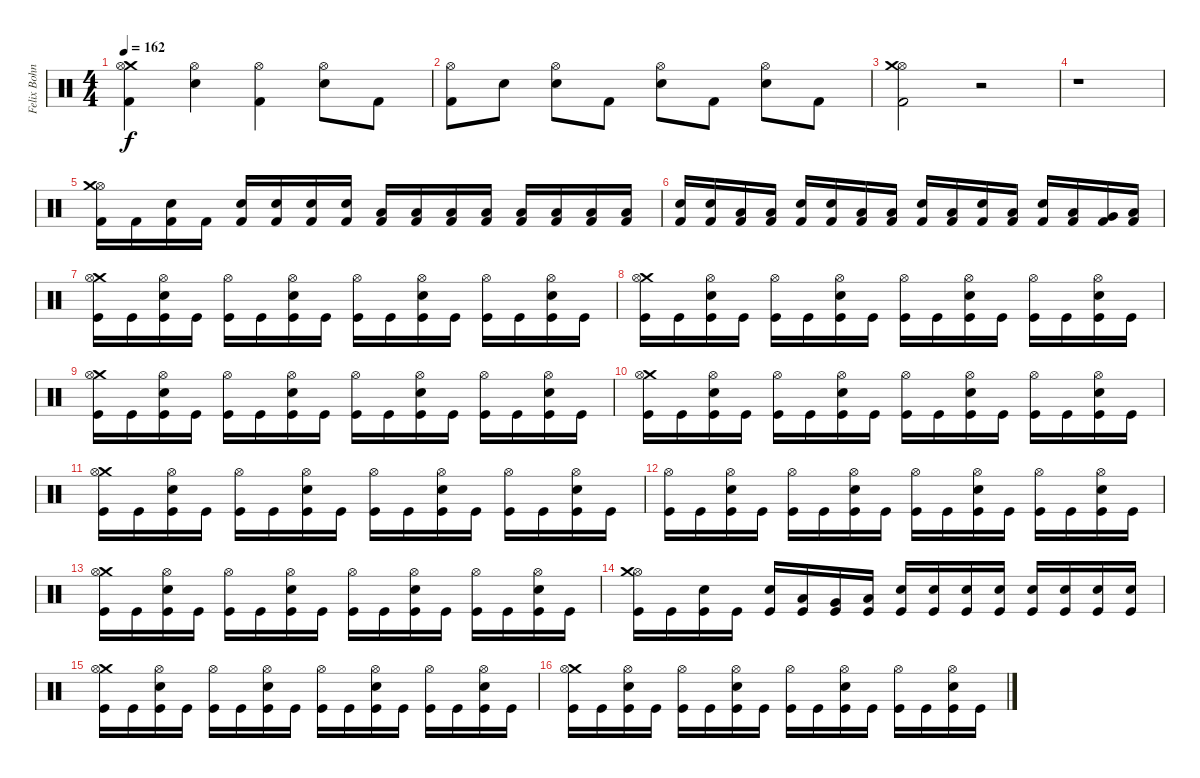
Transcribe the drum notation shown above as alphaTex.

\track ("Felix Bohnke" "Felix Bohn") {instrument percussion}
\staff {score}
\articulation defaults
\ts (4 4)
\tempo 162
\clef neutral
\ks c
("Crash medium (hit)" "Kick (hit) 2" "Hi-Hat (open)").4{dy f} ("Electric Snare (hit)" "Hi-Hat (open)").4 ("Kick (hit) 2" "Hi-Hat (open)").4 ("Electric Snare (hit)" "Hi-Hat (open)").8 "Kick (hit) 2".8 |
("Kick (hit) 2" "Hi-Hat (open)").8 "Electric Snare (hit)".8 ("Electric Snare (hit)" "Hi-Hat (open)").8 "Kick (hit) 2".8 ("Electric Snare (hit)" "Hi-Hat (open)").8 "Kick (hit) 2".8 ("Electric Snare (hit)" "Hi-Hat (open)").8 "Kick (hit) 2".8 |
("Hi-Hat (open)" "Crash medium (hit)" "Kick (hit) 2").2 r.2 |
r.1 |
("Hi-Hat (open)" "Crash medium (hit)" "Kick (hit) 2").16 "Kick (hit) 2".16 ("Electric Snare (hit)" "Kick (hit) 2").16 "Kick (hit) 2".16 ("Electric Snare (hit)" "Kick (hit) 2").16 ("Electric Snare (hit)" "Kick (hit) 2").16 ("Electric Snare (hit)" "Kick (hit) 2").16 ("Electric Snare (hit)" "Kick (hit) 2").16 ("Low Tom (hit)" "Kick (hit) 2").16 ("Low Tom (hit)" "Kick (hit) 2").16 ("Low Tom (hit)" "Kick (hit) 2").16 ("Low Tom (hit)" "Kick (hit) 2").16 ("Low Tom (hit)" "Kick (hit) 2").16 ("Low Tom (hit)" "Kick (hit) 2").16 ("Low Tom (hit)" "Kick (hit) 2").16 ("Low Tom (hit)" "Kick (hit) 2").16 |
("Electric Snare (hit)" "Kick (hit) 2").16 ("Electric Snare (hit)" "Kick (hit) 2").16 ("Low Tom (hit)" "Kick (hit) 2").16 ("Low Tom (hit)" "Kick (hit) 2").16 ("Electric Snare (hit)" "Kick (hit) 2").16 ("Electric Snare (hit)" "Kick (hit) 2").16 ("Low Tom (hit)" "Kick (hit) 2").16 ("Low Tom (hit)" "Kick (hit) 2").16 ("Electric Snare (hit)" "Kick (hit) 2").16 ("Low Tom (hit)" "Kick (hit) 2").16 ("Electric Snare (hit)" "Kick (hit) 2").16 ("Low Tom (hit)" "Kick (hit) 2").16 ("Electric Snare (hit)" "Kick (hit) 2").16 ("Low Tom (hit)" "Kick (hit) 2").16 ("Very Low Tom (hit)" "Kick (hit) 2").16 ("Low Floor Tom (hit)" "Kick (hit) 2").16 |
("Crash medium (hit)" "Hi-Hat (open)" "Kick (hit)").16 "Kick (hit)".16 ("Electric Snare (hit)" "Hi-Hat (open)" "Kick (hit)").16 "Kick (hit)".16 ("Hi-Hat (open)" "Kick (hit)").16 "Kick (hit)".16 ("Electric Snare (hit)" "Hi-Hat (open)" "Kick (hit)").16 "Kick (hit)".16 ("Hi-Hat (open)" "Kick (hit)").16 "Kick (hit)".16 ("Electric Snare (hit)" "Hi-Hat (open)" "Kick (hit)").16 "Kick (hit)".16 ("Hi-Hat (open)" "Kick (hit)").16 "Kick (hit)".16 ("Electric Snare (hit)" "Hi-Hat (open)" "Kick (hit)").16 "Kick (hit)".16 |
("Crash medium (hit)" "Hi-Hat (open)" "Kick (hit)").16 "Kick (hit)".16 ("Electric Snare (hit)" "Hi-Hat (open)" "Kick (hit)").16 "Kick (hit)".16 ("Hi-Hat (open)" "Kick (hit)").16 "Kick (hit)".16 ("Electric Snare (hit)" "Hi-Hat (open)" "Kick (hit)").16 "Kick (hit)".16 ("Hi-Hat (open)" "Kick (hit)").16 "Kick (hit)".16 ("Electric Snare (hit)" "Hi-Hat (open)" "Kick (hit)").16 "Kick (hit)".16 ("Hi-Hat (open)" "Kick (hit)").16 "Kick (hit)".16 ("Electric Snare (hit)" "Hi-Hat (open)" "Kick (hit)").16 "Kick (hit)".16 |
("Crash medium (hit)" "Hi-Hat (open)" "Kick (hit)").16 "Kick (hit)".16 ("Electric Snare (hit)" "Hi-Hat (open)" "Kick (hit)").16 "Kick (hit)".16 ("Hi-Hat (open)" "Kick (hit)").16 "Kick (hit)".16 ("Electric Snare (hit)" "Hi-Hat (open)" "Kick (hit)").16 "Kick (hit)".16 ("Hi-Hat (open)" "Kick (hit)").16 "Kick (hit)".16 ("Electric Snare (hit)" "Hi-Hat (open)" "Kick (hit)").16 "Kick (hit)".16 ("Hi-Hat (open)" "Kick (hit)").16 "Kick (hit)".16 ("Electric Snare (hit)" "Hi-Hat (open)" "Kick (hit)").16 "Kick (hit)".16 |
("Crash medium (hit)" "Hi-Hat (open)" "Kick (hit)").16 "Kick (hit)".16 ("Electric Snare (hit)" "Hi-Hat (open)" "Kick (hit)").16 "Kick (hit)".16 ("Hi-Hat (open)" "Kick (hit)").16 "Kick (hit)".16 ("Electric Snare (hit)" "Hi-Hat (open)" "Kick (hit)").16 "Kick (hit)".16 ("Hi-Hat (open)" "Kick (hit)").16 "Kick (hit)".16 ("Electric Snare (hit)" "Hi-Hat (open)" "Kick (hit)").16 "Kick (hit)".16 ("Hi-Hat (open)" "Kick (hit)").16 "Kick (hit)".16 ("Electric Snare (hit)" "Hi-Hat (open)" "Kick (hit)").16 "Kick (hit)".16 |
("Crash medium (hit)" "Hi-Hat (open)" "Kick (hit)").16 "Kick (hit)".16 ("Electric Snare (hit)" "Hi-Hat (open)" "Kick (hit)").16 "Kick (hit)".16 ("Hi-Hat (open)" "Kick (hit)").16 "Kick (hit)".16 ("Electric Snare (hit)" "Hi-Hat (open)" "Kick (hit)").16 "Kick (hit)".16 ("Hi-Hat (open)" "Kick (hit)").16 "Kick (hit)".16 ("Electric Snare (hit)" "Hi-Hat (open)" "Kick (hit)").16 "Kick (hit)".16 ("Hi-Hat (open)" "Kick (hit)").16 "Kick (hit)".16 ("Electric Snare (hit)" "Hi-Hat (open)" "Kick (hit)").16 "Kick (hit)".16 |
("Hi-Hat (open)" "Kick (hit)").16 "Kick (hit)".16 ("Electric Snare (hit)" "Hi-Hat (open)" "Kick (hit)").16 "Kick (hit)".16 ("Hi-Hat (open)" "Kick (hit)").16 "Kick (hit)".16 ("Electric Snare (hit)" "Hi-Hat (open)" "Kick (hit)").16 "Kick (hit)".16 ("Hi-Hat (open)" "Kick (hit)").16 "Kick (hit)".16 ("Electric Snare (hit)" "Hi-Hat (open)" "Kick (hit)").16 "Kick (hit)".16 ("Hi-Hat (open)" "Kick (hit)").16 "Kick (hit)".16 ("Electric Snare (hit)" "Hi-Hat (open)" "Kick (hit)").16 "Kick (hit)".16 |
("Crash medium (hit)" "Hi-Hat (open)" "Kick (hit)").16 "Kick (hit)".16 ("Electric Snare (hit)" "Hi-Hat (open)" "Kick (hit)").16 "Kick (hit)".16 ("Hi-Hat (open)" "Kick (hit)").16 "Kick (hit)".16 ("Electric Snare (hit)" "Hi-Hat (open)" "Kick (hit)").16 "Kick (hit)".16 ("Hi-Hat (open)" "Kick (hit)").16 "Kick (hit)".16 ("Electric Snare (hit)" "Hi-Hat (open)" "Kick (hit)").16 "Kick (hit)".16 ("Hi-Hat (open)" "Kick (hit)").16 "Kick (hit)".16 ("Electric Snare (hit)" "Hi-Hat (open)" "Kick (hit)").16 "Kick (hit)".16 |
("Hi-Hat (open)" "Crash medium (hit)" "Kick (hit)").16 "Kick (hit)".16 ("Electric Snare (hit)" "Kick (hit)").16 "Kick (hit)".16 ("Electric Snare (hit)" "Kick (hit)").16 ("Low Tom (hit)" "Kick (hit)").16 ("Very Low Tom (hit)" "Kick (hit)").16 ("Low Floor Tom (hit)" "Kick (hit)").16 ("Electric Snare (hit)" "Kick (hit)").16 ("Electric Snare (hit)" "Kick (hit)").16 ("Electric Snare (hit)" "Kick (hit)").16 ("Electric Snare (hit)" "Kick (hit)").16 ("Electric Snare (hit)" "Kick (hit)").16 ("Electric Snare (hit)" "Kick (hit)").16 ("Electric Snare (hit)" "Kick (hit)").16 ("Electric Snare (hit)" "Kick (hit)").16 |
("Crash medium (hit)" "Hi-Hat (open)" "Kick (hit)").16 "Kick (hit)".16 ("Electric Snare (hit)" "Hi-Hat (open)" "Kick (hit)").16 "Kick (hit)".16 ("Hi-Hat (open)" "Kick (hit)").16 "Kick (hit)".16 ("Electric Snare (hit)" "Hi-Hat (open)" "Kick (hit)").16 "Kick (hit)".16 ("Hi-Hat (open)" "Kick (hit)").16 "Kick (hit)".16 ("Electric Snare (hit)" "Hi-Hat (open)" "Kick (hit)").16 "Kick (hit)".16 ("Hi-Hat (open)" "Kick (hit)").16 "Kick (hit)".16 ("Electric Snare (hit)" "Hi-Hat (open)" "Kick (hit)").16 "Kick (hit)".16 |
("Crash medium (hit)" "Hi-Hat (open)" "Kick (hit)").16 "Kick (hit)".16 ("Electric Snare (hit)" "Hi-Hat (open)" "Kick (hit)").16 "Kick (hit)".16 ("Hi-Hat (open)" "Kick (hit)").16 "Kick (hit)".16 ("Electric Snare (hit)" "Hi-Hat (open)" "Kick (hit)").16 "Kick (hit)".16 ("Hi-Hat (open)" "Kick (hit)").16 "Kick (hit)".16 ("Electric Snare (hit)" "Hi-Hat (open)" "Kick (hit)").16 "Kick (hit)".16 ("Hi-Hat (open)" "Kick (hit)").16 "Kick (hit)".16 ("Electric Snare (hit)" "Hi-Hat (open)" "Kick (hit)").16 "Kick (hit)".16
